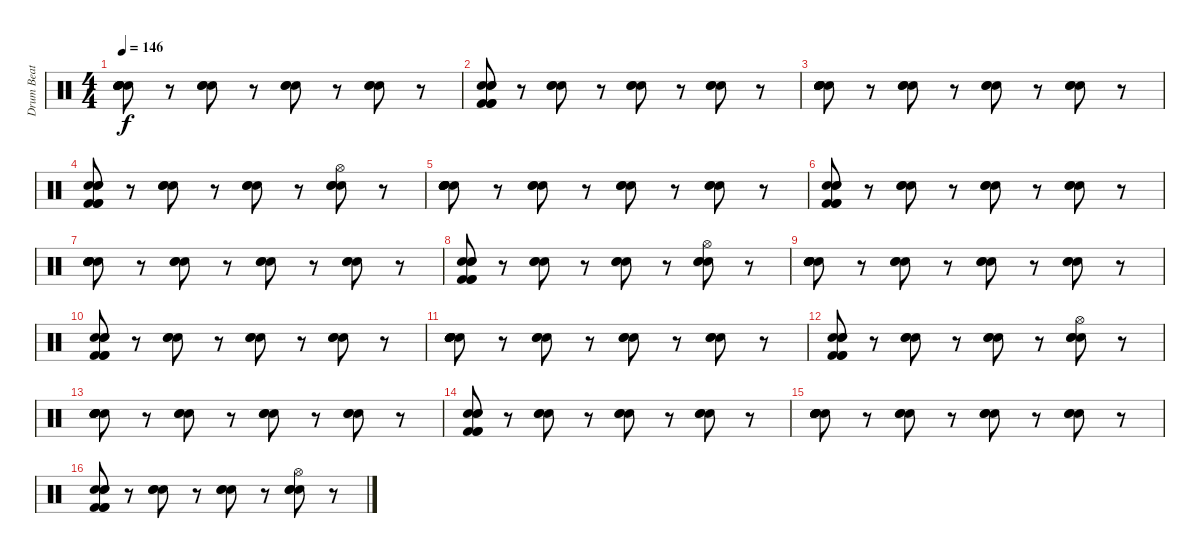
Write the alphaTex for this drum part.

\track ("Drum Beat" "Drum Beat") {instrument percussion}
\staff {score}
\articulation defaults
\ts (4 4)
\tempo 146
\clef neutral
\ks c
("Hand Clap (hit)" "Hand Clap (hit)" "Hand Clap (hit)" "Electric Snare (hit)" "Electric Snare (hit)" "Electric Snare (hit)").8{dy f} r.8 ("Hand Clap (hit)" "Hand Clap (hit)" "Hand Clap (hit)").8 r.8 ("Hand Clap (hit)" "Hand Clap (hit)" "Hand Clap (hit)").8 r.8 ("Hand Clap (hit)" "Hand Clap (hit)" "Hand Clap (hit)").8 r.8 |
("Hand Clap (hit)" "Hand Clap (hit)" "Hand Clap (hit)" "Kick (hit) 2" "Kick (hit) 2" "Kick (hit) 2").8 r.8 ("Hand Clap (hit)" "Hand Clap (hit)" "Hand Clap (hit)").8 r.8 ("Hand Clap (hit)" "Hand Clap (hit)" "Hand Clap (hit)").8 r.8 ("Hand Clap (hit)" "Hand Clap (hit)" "Hand Clap (hit)").8 r.8 |
("Hand Clap (hit)" "Hand Clap (hit)" "Hand Clap (hit)" "Electric Snare (hit)" "Electric Snare (hit)" "Electric Snare (hit)").8 r.8 ("Hand Clap (hit)" "Hand Clap (hit)" "Hand Clap (hit)").8 r.8 ("Hand Clap (hit)" "Hand Clap (hit)" "Hand Clap (hit)").8 r.8 ("Hand Clap (hit)" "Hand Clap (hit)" "Hand Clap (hit)").8 r.8 |
("Hand Clap (hit)" "Hand Clap (hit)" "Hand Clap (hit)" "Kick (hit) 2" "Kick (hit) 2" "Kick (hit) 2").8 r.8 ("Hand Clap (hit)" "Hand Clap (hit)" "Hand Clap (hit)").8 r.8 ("Hand Clap (hit)" "Hand Clap (hit)" "Hand Clap (hit)").8 r.8 ("Hand Clap (hit)" "Hand Clap (hit)" "Hand Clap (hit)" "Hi-Hat (open)").8 r.8 |
("Hand Clap (hit)" "Hand Clap (hit)" "Hand Clap (hit)" "Electric Snare (hit)" "Electric Snare (hit)" "Electric Snare (hit)").8 r.8 ("Hand Clap (hit)" "Hand Clap (hit)" "Hand Clap (hit)").8 r.8 ("Hand Clap (hit)" "Hand Clap (hit)" "Hand Clap (hit)").8 r.8 ("Hand Clap (hit)" "Hand Clap (hit)" "Hand Clap (hit)").8 r.8 |
("Hand Clap (hit)" "Hand Clap (hit)" "Hand Clap (hit)" "Kick (hit) 2" "Kick (hit) 2" "Kick (hit) 2").8 r.8 ("Hand Clap (hit)" "Hand Clap (hit)" "Hand Clap (hit)").8 r.8 ("Hand Clap (hit)" "Hand Clap (hit)" "Hand Clap (hit)").8 r.8 ("Hand Clap (hit)" "Hand Clap (hit)" "Hand Clap (hit)").8 r.8 |
("Hand Clap (hit)" "Hand Clap (hit)" "Hand Clap (hit)" "Electric Snare (hit)" "Electric Snare (hit)" "Electric Snare (hit)").8 r.8 ("Hand Clap (hit)" "Hand Clap (hit)" "Hand Clap (hit)").8 r.8 ("Hand Clap (hit)" "Hand Clap (hit)" "Hand Clap (hit)").8 r.8 ("Hand Clap (hit)" "Hand Clap (hit)" "Hand Clap (hit)").8 r.8 |
("Hand Clap (hit)" "Hand Clap (hit)" "Hand Clap (hit)" "Kick (hit) 2" "Kick (hit) 2" "Kick (hit) 2").8 r.8 ("Hand Clap (hit)" "Hand Clap (hit)" "Hand Clap (hit)").8 r.8 ("Hand Clap (hit)" "Hand Clap (hit)" "Hand Clap (hit)").8 r.8 ("Hand Clap (hit)" "Hand Clap (hit)" "Hand Clap (hit)" "Hi-Hat (open)").8 r.8 |
("Hand Clap (hit)" "Hand Clap (hit)" "Hand Clap (hit)" "Electric Snare (hit)" "Electric Snare (hit)" "Electric Snare (hit)").8 r.8 ("Hand Clap (hit)" "Hand Clap (hit)" "Hand Clap (hit)").8 r.8 ("Hand Clap (hit)" "Hand Clap (hit)" "Hand Clap (hit)").8 r.8 ("Hand Clap (hit)" "Hand Clap (hit)" "Hand Clap (hit)").8 r.8 |
("Hand Clap (hit)" "Hand Clap (hit)" "Hand Clap (hit)" "Kick (hit) 2" "Kick (hit) 2" "Kick (hit) 2").8 r.8 ("Hand Clap (hit)" "Hand Clap (hit)" "Hand Clap (hit)").8 r.8 ("Hand Clap (hit)" "Hand Clap (hit)" "Hand Clap (hit)").8 r.8 ("Hand Clap (hit)" "Hand Clap (hit)" "Hand Clap (hit)").8 r.8 |
("Hand Clap (hit)" "Hand Clap (hit)" "Hand Clap (hit)" "Electric Snare (hit)" "Electric Snare (hit)" "Electric Snare (hit)").8 r.8 ("Hand Clap (hit)" "Hand Clap (hit)" "Hand Clap (hit)").8 r.8 ("Hand Clap (hit)" "Hand Clap (hit)" "Hand Clap (hit)").8 r.8 ("Hand Clap (hit)" "Hand Clap (hit)" "Hand Clap (hit)").8 r.8 |
("Hand Clap (hit)" "Hand Clap (hit)" "Hand Clap (hit)" "Kick (hit) 2" "Kick (hit) 2" "Kick (hit) 2").8 r.8 ("Hand Clap (hit)" "Hand Clap (hit)" "Hand Clap (hit)").8 r.8 ("Hand Clap (hit)" "Hand Clap (hit)" "Hand Clap (hit)").8 r.8 ("Hand Clap (hit)" "Hand Clap (hit)" "Hand Clap (hit)" "Hi-Hat (open)").8 r.8 |
("Hand Clap (hit)" "Hand Clap (hit)" "Hand Clap (hit)" "Electric Snare (hit)" "Electric Snare (hit)" "Electric Snare (hit)").8 r.8 ("Hand Clap (hit)" "Hand Clap (hit)" "Hand Clap (hit)").8 r.8 ("Hand Clap (hit)" "Hand Clap (hit)" "Hand Clap (hit)").8 r.8 ("Hand Clap (hit)" "Hand Clap (hit)" "Hand Clap (hit)").8 r.8 |
("Hand Clap (hit)" "Hand Clap (hit)" "Hand Clap (hit)" "Kick (hit) 2" "Kick (hit) 2" "Kick (hit) 2").8 r.8 ("Hand Clap (hit)" "Hand Clap (hit)" "Hand Clap (hit)").8 r.8 ("Hand Clap (hit)" "Hand Clap (hit)" "Hand Clap (hit)").8 r.8 ("Hand Clap (hit)" "Hand Clap (hit)" "Hand Clap (hit)").8 r.8 |
("Hand Clap (hit)" "Hand Clap (hit)" "Hand Clap (hit)" "Electric Snare (hit)" "Electric Snare (hit)" "Electric Snare (hit)").8 r.8 ("Hand Clap (hit)" "Hand Clap (hit)" "Hand Clap (hit)").8 r.8 ("Hand Clap (hit)" "Hand Clap (hit)" "Hand Clap (hit)").8 r.8 ("Hand Clap (hit)" "Hand Clap (hit)" "Hand Clap (hit)").8 r.8 |
("Hand Clap (hit)" "Hand Clap (hit)" "Hand Clap (hit)" "Kick (hit) 2" "Kick (hit) 2" "Kick (hit) 2").8 r.8 ("Hand Clap (hit)" "Hand Clap (hit)" "Hand Clap (hit)").8 r.8 ("Hand Clap (hit)" "Hand Clap (hit)" "Hand Clap (hit)").8 r.8 ("Hand Clap (hit)" "Hand Clap (hit)" "Hand Clap (hit)" "Hi-Hat (open)").8 r.8
